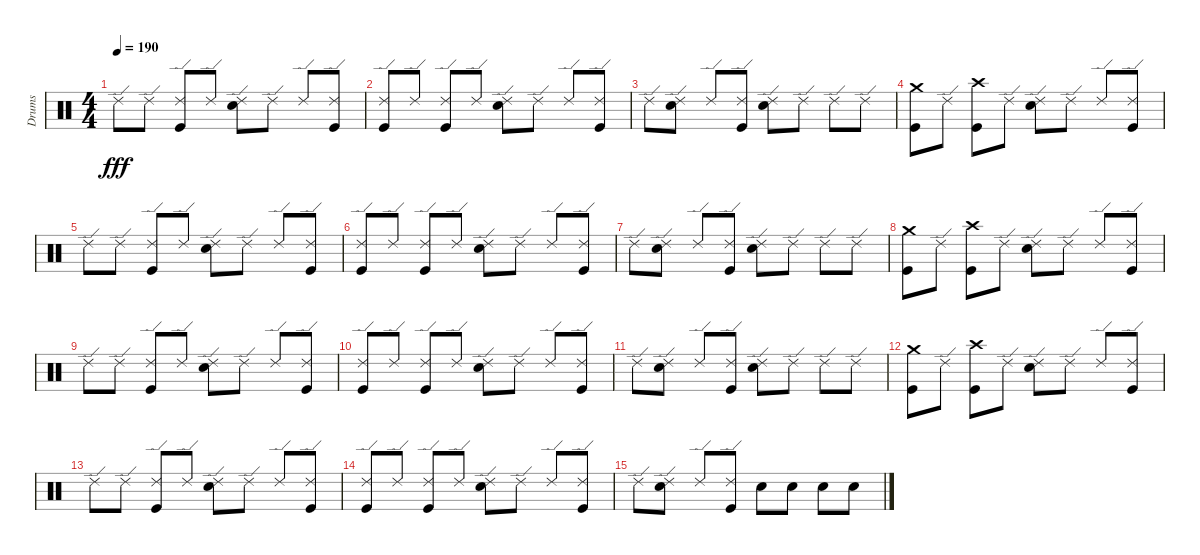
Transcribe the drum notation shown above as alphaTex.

\track ("Drums" "Drums") {instrument percussion}
\staff {score}
\articulation defaults
\ts (4 4)
\tempo 190
\clef neutral
\ks c "Ride (edge) 2".8{dy fff} "Ride (edge) 2".8
("Ride (edge) 2" "Kick (hit)").8 "Ride (edge) 2".8 ("Ride (edge) 2" "Snare (hit) 2").8 "Ride (edge) 2".8 "Ride (edge) 2".8 ("Ride (edge) 2" "Kick (hit)").8 |
("Ride (edge) 2" "Kick (hit)").8 "Ride (edge) 2".8 ("Ride (edge) 2" "Kick (hit)").8 "Ride (edge) 2".8 ("Ride (edge) 2" "Snare (hit) 2").8 "Ride (edge) 2".8 "Ride (edge) 2".8 ("Ride (edge) 2" "Kick (hit)").8 |
"Ride (edge) 2".8 ("Ride (edge) 2" "Snare (hit) 2").8 "Ride (edge) 2".8 ("Ride (edge) 2" "Kick (hit)").8 ("Ride (edge) 2" "Snare (hit) 2").8 "Ride (edge) 2".8 "Ride (edge) 2".8 "Ride (edge) 2".8 |
("Crash medium (hit)" "Kick (hit)").8 "Ride (edge) 2".8 ("Crash high (hit)" "Kick (hit)").8 "Ride (edge) 2".8 ("Ride (edge) 2" "Snare (hit) 2").8 "Ride (edge) 2".8 "Ride (edge) 2".8 ("Ride (edge) 2" "Kick (hit)").8 |
"Ride (edge) 2".8 "Ride (edge) 2".8 ("Ride (edge) 2" "Kick (hit)").8 "Ride (edge) 2".8 ("Ride (edge) 2" "Snare (hit) 2").8 "Ride (edge) 2".8 "Ride (edge) 2".8 ("Ride (edge) 2" "Kick (hit)").8 |
("Ride (edge) 2" "Kick (hit)").8 "Ride (edge) 2".8 ("Ride (edge) 2" "Kick (hit)").8 "Ride (edge) 2".8 ("Ride (edge) 2" "Snare (hit) 2").8 "Ride (edge) 2".8 "Ride (edge) 2".8 ("Ride (edge) 2" "Kick (hit)").8 |
"Ride (edge) 2".8 ("Ride (edge) 2" "Snare (hit) 2").8 "Ride (edge) 2".8 ("Ride (edge) 2" "Kick (hit)").8 ("Ride (edge) 2" "Snare (hit) 2").8 "Ride (edge) 2".8 "Ride (edge) 2".8 "Ride (edge) 2".8 |
("Crash medium (hit)" "Kick (hit)").8 "Ride (edge) 2".8 ("Crash high (hit)" "Kick (hit)").8 "Ride (edge) 2".8 ("Ride (edge) 2" "Snare (hit) 2").8 "Ride (edge) 2".8 "Ride (edge) 2".8 ("Ride (edge) 2" "Kick (hit)").8 |
"Ride (edge) 2".8 "Ride (edge) 2".8 ("Ride (edge) 2" "Kick (hit)").8 "Ride (edge) 2".8 ("Ride (edge) 2" "Snare (hit) 2").8 "Ride (edge) 2".8 "Ride (edge) 2".8 ("Ride (edge) 2" "Kick (hit)").8 |
("Ride (edge) 2" "Kick (hit)").8 "Ride (edge) 2".8 ("Ride (edge) 2" "Kick (hit)").8 "Ride (edge) 2".8 ("Ride (edge) 2" "Snare (hit) 2").8 "Ride (edge) 2".8 "Ride (edge) 2".8 ("Ride (edge) 2" "Kick (hit)").8 |
"Ride (edge) 2".8 ("Ride (edge) 2" "Snare (hit) 2").8 "Ride (edge) 2".8 ("Ride (edge) 2" "Kick (hit)").8 ("Ride (edge) 2" "Snare (hit) 2").8 "Ride (edge) 2".8 "Ride (edge) 2".8 "Ride (edge) 2".8 |
("Crash medium (hit)" "Kick (hit)").8 "Ride (edge) 2".8 ("Crash high (hit)" "Kick (hit)").8 "Ride (edge) 2".8 ("Ride (edge) 2" "Snare (hit) 2").8 "Ride (edge) 2".8 "Ride (edge) 2".8 ("Ride (edge) 2" "Kick (hit)").8 |
"Ride (edge) 2".8 "Ride (edge) 2".8 ("Ride (edge) 2" "Kick (hit)").8 "Ride (edge) 2".8 ("Ride (edge) 2" "Snare (hit) 2").8 "Ride (edge) 2".8 "Ride (edge) 2".8 ("Ride (edge) 2" "Kick (hit)").8 |
("Ride (edge) 2" "Kick (hit)").8 "Ride (edge) 2".8 ("Ride (edge) 2" "Kick (hit)").8 "Ride (edge) 2".8 ("Ride (edge) 2" "Snare (hit) 2").8 "Ride (edge) 2".8 "Ride (edge) 2".8 ("Ride (edge) 2" "Kick (hit)").8 |
"Ride (edge) 2".8 ("Ride (edge) 2" "Snare (hit) 2").8 "Ride (edge) 2".8 ("Ride (edge) 2" "Kick (hit)").8 "Snare (hit) 2".8 "Snare (hit) 2".8 "Snare (hit) 2".8 "Snare (hit) 2".8
